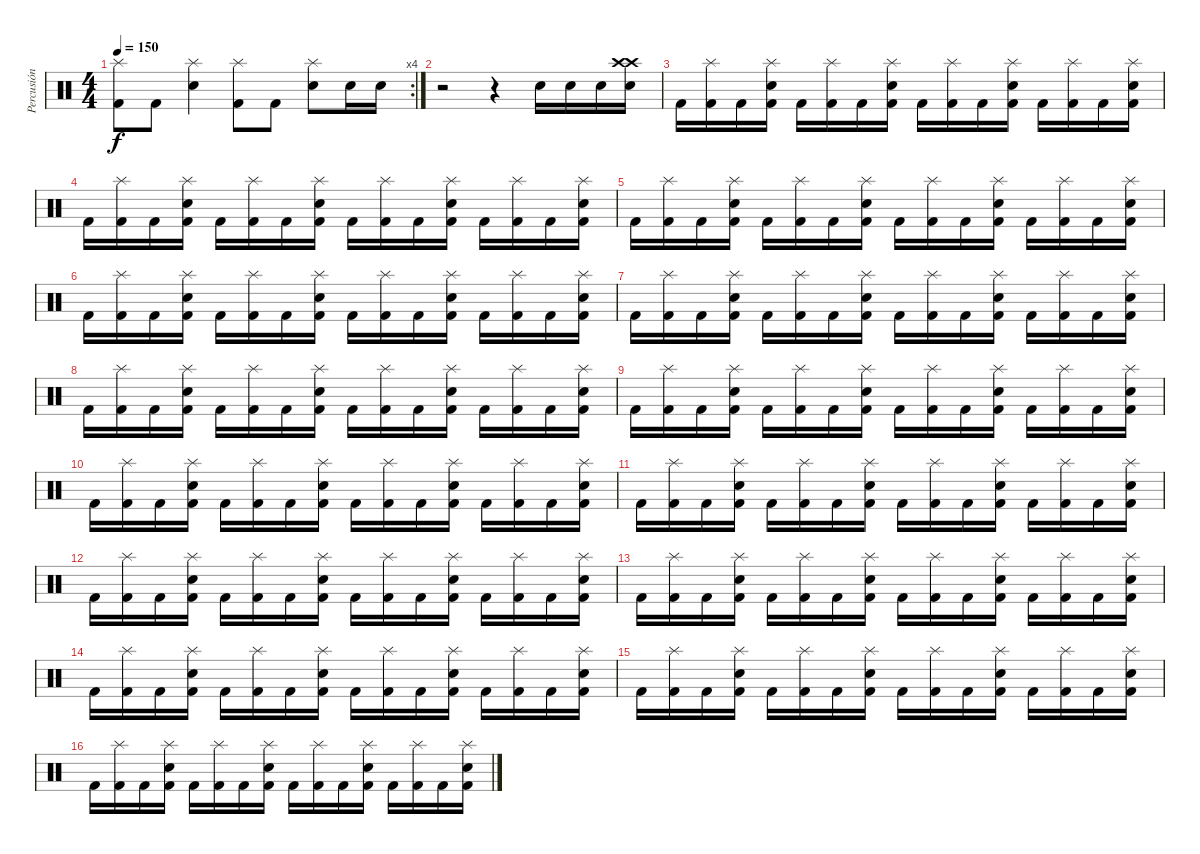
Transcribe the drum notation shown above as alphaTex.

\track ("Percusión" "Percusión") {instrument percussion}
\staff {score}
\articulation defaults
\rc 4
\ts (4 4)
\tempo 150
\clef neutral
\ks c
("Kick (hit) 2" "Splash (hit)").8{dy f} "Kick (hit) 2".8 ("Snare (hit) 2" "Splash (hit)").4 ("Kick (hit) 2" "Splash (hit)").8 "Kick (hit) 2".8 ("Snare (hit) 2" "Splash (hit)").8 "Snare (hit) 2".16 "Snare (hit) 2".16 |
r.2 r.4 "Snare (hit) 2".16 "Snare (hit) 2".16 "Snare (hit) 2".16 ("Crash high (hit)" "Crash high (hit)" "Snare (hit) 2").16 |
"Kick (hit) 2".16 ("Kick (hit) 2" "Splash (hit)").16 "Kick (hit) 2".16 ("Kick (hit) 2" "Splash (hit)" "Snare (hit) 2").16 "Kick (hit) 2".16 ("Kick (hit) 2" "Splash (hit)").16 "Kick (hit) 2".16 ("Kick (hit) 2" "Splash (hit)" "Snare (hit) 2").16 "Kick (hit) 2".16 ("Kick (hit) 2" "Splash (hit)").16 "Kick (hit) 2".16 ("Kick (hit) 2" "Splash (hit)" "Snare (hit) 2").16 "Kick (hit) 2".16 ("Kick (hit) 2" "Splash (hit)").16 "Kick (hit) 2".16 ("Kick (hit) 2" "Splash (hit)" "Snare (hit) 2").16 |
"Kick (hit) 2".16 ("Kick (hit) 2" "Splash (hit)").16 "Kick (hit) 2".16 ("Kick (hit) 2" "Splash (hit)" "Snare (hit) 2").16 "Kick (hit) 2".16 ("Kick (hit) 2" "Splash (hit)").16 "Kick (hit) 2".16 ("Kick (hit) 2" "Splash (hit)" "Snare (hit) 2").16 "Kick (hit) 2".16 ("Kick (hit) 2" "Splash (hit)").16 "Kick (hit) 2".16 ("Kick (hit) 2" "Splash (hit)" "Snare (hit) 2").16 "Kick (hit) 2".16 ("Kick (hit) 2" "Splash (hit)").16 "Kick (hit) 2".16 ("Kick (hit) 2" "Splash (hit)" "Snare (hit) 2").16 |
"Kick (hit) 2".16 ("Kick (hit) 2" "Splash (hit)").16 "Kick (hit) 2".16 ("Kick (hit) 2" "Splash (hit)" "Snare (hit) 2").16 "Kick (hit) 2".16 ("Kick (hit) 2" "Splash (hit)").16 "Kick (hit) 2".16 ("Kick (hit) 2" "Splash (hit)" "Snare (hit) 2").16 "Kick (hit) 2".16 ("Kick (hit) 2" "Splash (hit)").16 "Kick (hit) 2".16 ("Kick (hit) 2" "Splash (hit)" "Snare (hit) 2").16 "Kick (hit) 2".16 ("Kick (hit) 2" "Splash (hit)").16 "Kick (hit) 2".16 ("Kick (hit) 2" "Splash (hit)" "Snare (hit) 2").16 |
"Kick (hit) 2".16 ("Kick (hit) 2" "Splash (hit)").16 "Kick (hit) 2".16 ("Kick (hit) 2" "Splash (hit)" "Snare (hit) 2").16 "Kick (hit) 2".16 ("Kick (hit) 2" "Splash (hit)").16 "Kick (hit) 2".16 ("Kick (hit) 2" "Splash (hit)" "Snare (hit) 2").16 "Kick (hit) 2".16 ("Kick (hit) 2" "Splash (hit)").16 "Kick (hit) 2".16 ("Kick (hit) 2" "Splash (hit)" "Snare (hit) 2").16 "Kick (hit) 2".16 ("Kick (hit) 2" "Splash (hit)").16 "Kick (hit) 2".16 ("Kick (hit) 2" "Splash (hit)" "Snare (hit) 2").16 |
"Kick (hit) 2".16 ("Kick (hit) 2" "Splash (hit)").16 "Kick (hit) 2".16 ("Kick (hit) 2" "Splash (hit)" "Snare (hit) 2").16 "Kick (hit) 2".16 ("Kick (hit) 2" "Splash (hit)").16 "Kick (hit) 2".16 ("Kick (hit) 2" "Splash (hit)" "Snare (hit) 2").16 "Kick (hit) 2".16 ("Kick (hit) 2" "Splash (hit)").16 "Kick (hit) 2".16 ("Kick (hit) 2" "Splash (hit)" "Snare (hit) 2").16 "Kick (hit) 2".16 ("Kick (hit) 2" "Splash (hit)").16 "Kick (hit) 2".16 ("Kick (hit) 2" "Splash (hit)" "Snare (hit) 2").16 |
"Kick (hit) 2".16 ("Kick (hit) 2" "Splash (hit)").16 "Kick (hit) 2".16 ("Kick (hit) 2" "Splash (hit)" "Snare (hit) 2").16 "Kick (hit) 2".16 ("Kick (hit) 2" "Splash (hit)").16 "Kick (hit) 2".16 ("Kick (hit) 2" "Splash (hit)" "Snare (hit) 2").16 "Kick (hit) 2".16 ("Kick (hit) 2" "Splash (hit)").16 "Kick (hit) 2".16 ("Kick (hit) 2" "Splash (hit)" "Snare (hit) 2").16 "Kick (hit) 2".16 ("Kick (hit) 2" "Splash (hit)").16 "Kick (hit) 2".16 ("Kick (hit) 2" "Splash (hit)" "Snare (hit) 2").16 |
"Kick (hit) 2".16 ("Kick (hit) 2" "Splash (hit)").16 "Kick (hit) 2".16 ("Kick (hit) 2" "Splash (hit)" "Snare (hit) 2").16 "Kick (hit) 2".16 ("Kick (hit) 2" "Splash (hit)").16 "Kick (hit) 2".16 ("Kick (hit) 2" "Splash (hit)" "Snare (hit) 2").16 "Kick (hit) 2".16 ("Kick (hit) 2" "Splash (hit)").16 "Kick (hit) 2".16 ("Kick (hit) 2" "Splash (hit)" "Snare (hit) 2").16 "Kick (hit) 2".16 ("Kick (hit) 2" "Splash (hit)").16 "Kick (hit) 2".16 ("Kick (hit) 2" "Splash (hit)" "Snare (hit) 2").16 |
"Kick (hit) 2".16 ("Kick (hit) 2" "Splash (hit)").16 "Kick (hit) 2".16 ("Kick (hit) 2" "Splash (hit)" "Snare (hit) 2").16 "Kick (hit) 2".16 ("Kick (hit) 2" "Splash (hit)").16 "Kick (hit) 2".16 ("Kick (hit) 2" "Splash (hit)" "Snare (hit) 2").16 "Kick (hit) 2".16 ("Kick (hit) 2" "Splash (hit)").16 "Kick (hit) 2".16 ("Kick (hit) 2" "Splash (hit)" "Snare (hit) 2").16 "Kick (hit) 2".16 ("Kick (hit) 2" "Splash (hit)").16 "Kick (hit) 2".16 ("Kick (hit) 2" "Splash (hit)" "Snare (hit) 2").16 |
"Kick (hit) 2".16 ("Kick (hit) 2" "Splash (hit)").16 "Kick (hit) 2".16 ("Kick (hit) 2" "Splash (hit)" "Snare (hit) 2").16 "Kick (hit) 2".16 ("Kick (hit) 2" "Splash (hit)").16 "Kick (hit) 2".16 ("Kick (hit) 2" "Splash (hit)" "Snare (hit) 2").16 "Kick (hit) 2".16 ("Kick (hit) 2" "Splash (hit)").16 "Kick (hit) 2".16 ("Kick (hit) 2" "Splash (hit)" "Snare (hit) 2").16 "Kick (hit) 2".16 ("Kick (hit) 2" "Splash (hit)").16 "Kick (hit) 2".16 ("Kick (hit) 2" "Splash (hit)" "Snare (hit) 2").16 |
"Kick (hit) 2".16 ("Kick (hit) 2" "Splash (hit)").16 "Kick (hit) 2".16 ("Kick (hit) 2" "Splash (hit)" "Snare (hit) 2").16 "Kick (hit) 2".16 ("Kick (hit) 2" "Splash (hit)").16 "Kick (hit) 2".16 ("Kick (hit) 2" "Splash (hit)" "Snare (hit) 2").16 "Kick (hit) 2".16 ("Kick (hit) 2" "Splash (hit)").16 "Kick (hit) 2".16 ("Kick (hit) 2" "Splash (hit)" "Snare (hit) 2").16 "Kick (hit) 2".16 ("Kick (hit) 2" "Splash (hit)").16 "Kick (hit) 2".16 ("Kick (hit) 2" "Splash (hit)" "Snare (hit) 2").16 |
"Kick (hit) 2".16 ("Kick (hit) 2" "Splash (hit)").16 "Kick (hit) 2".16 ("Kick (hit) 2" "Splash (hit)" "Snare (hit) 2").16 "Kick (hit) 2".16 ("Kick (hit) 2" "Splash (hit)").16 "Kick (hit) 2".16 ("Kick (hit) 2" "Splash (hit)" "Snare (hit) 2").16 "Kick (hit) 2".16 ("Kick (hit) 2" "Splash (hit)").16 "Kick (hit) 2".16 ("Kick (hit) 2" "Splash (hit)" "Snare (hit) 2").16 "Kick (hit) 2".16 ("Kick (hit) 2" "Splash (hit)").16 "Kick (hit) 2".16 ("Kick (hit) 2" "Splash (hit)" "Snare (hit) 2").16 |
"Kick (hit) 2".16 ("Kick (hit) 2" "Splash (hit)").16 "Kick (hit) 2".16 ("Kick (hit) 2" "Splash (hit)" "Snare (hit) 2").16 "Kick (hit) 2".16 ("Kick (hit) 2" "Splash (hit)").16 "Kick (hit) 2".16 ("Kick (hit) 2" "Splash (hit)" "Snare (hit) 2").16 "Kick (hit) 2".16 ("Kick (hit) 2" "Splash (hit)").16 "Kick (hit) 2".16 ("Kick (hit) 2" "Splash (hit)" "Snare (hit) 2").16 "Kick (hit) 2".16 ("Kick (hit) 2" "Splash (hit)").16 "Kick (hit) 2".16 ("Kick (hit) 2" "Splash (hit)" "Snare (hit) 2").16 |
"Kick (hit) 2".16 ("Kick (hit) 2" "Splash (hit)").16 "Kick (hit) 2".16 ("Kick (hit) 2" "Splash (hit)" "Snare (hit) 2").16 "Kick (hit) 2".16 ("Kick (hit) 2" "Splash (hit)").16 "Kick (hit) 2".16 ("Kick (hit) 2" "Splash (hit)" "Snare (hit) 2").16 "Kick (hit) 2".16 ("Kick (hit) 2" "Splash (hit)").16 "Kick (hit) 2".16 ("Kick (hit) 2" "Splash (hit)" "Snare (hit) 2").16 "Kick (hit) 2".16 ("Kick (hit) 2" "Splash (hit)").16 "Kick (hit) 2".16 ("Kick (hit) 2" "Splash (hit)" "Snare (hit) 2").16 |
"Kick (hit) 2".16 ("Kick (hit) 2" "Splash (hit)").16 "Kick (hit) 2".16 ("Kick (hit) 2" "Splash (hit)" "Snare (hit) 2").16 "Kick (hit) 2".16 ("Kick (hit) 2" "Splash (hit)").16 "Kick (hit) 2".16 ("Kick (hit) 2" "Splash (hit)" "Snare (hit) 2").16 "Kick (hit) 2".16 ("Kick (hit) 2" "Splash (hit)").16 "Kick (hit) 2".16 ("Kick (hit) 2" "Splash (hit)" "Snare (hit) 2").16 "Kick (hit) 2".16 ("Kick (hit) 2" "Splash (hit)").16 "Kick (hit) 2".16 ("Kick (hit) 2" "Splash (hit)" "Snare (hit) 2").16
